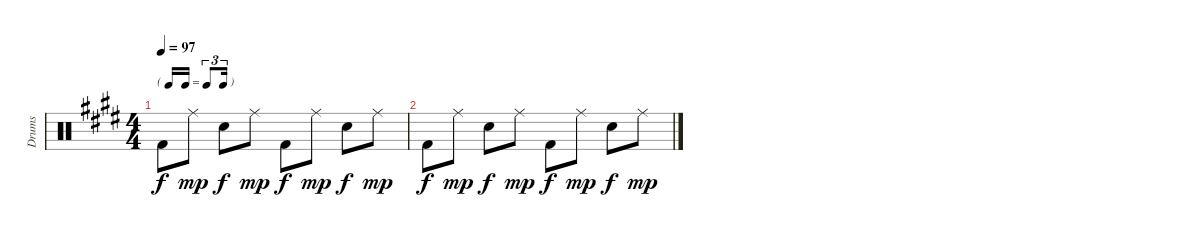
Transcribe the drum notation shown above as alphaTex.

\track ("Drums" "Drums") {instrument percussion}
\staff {score}
\articulation defaults
\ts (4 4)
\tf triplet16th
\tempo 97
\clef neutral
\ks c#minor "Kick (hit) 2".8{dy f} "Ride (middle)".8{dy mp} "Snare (hit) 2".8{dy f} "Ride (middle)".8{dy mp} "Kick (hit) 2".8{dy f} "Ride (middle)".8{dy mp} "Snare (hit) 2".8{dy f} "Ride (middle)".8{dy mp}
|
\ks e "Kick (hit) 2".8{dy f} "Ride (middle)".8{dy mp} "Snare (hit) 2".8{dy f} "Ride (middle)".8{dy mp} "Kick (hit) 2".8{dy f} "Ride (middle)".8{dy mp} "Snare (hit) 2".8{dy f} "Ride (middle)".8{dy mp}
